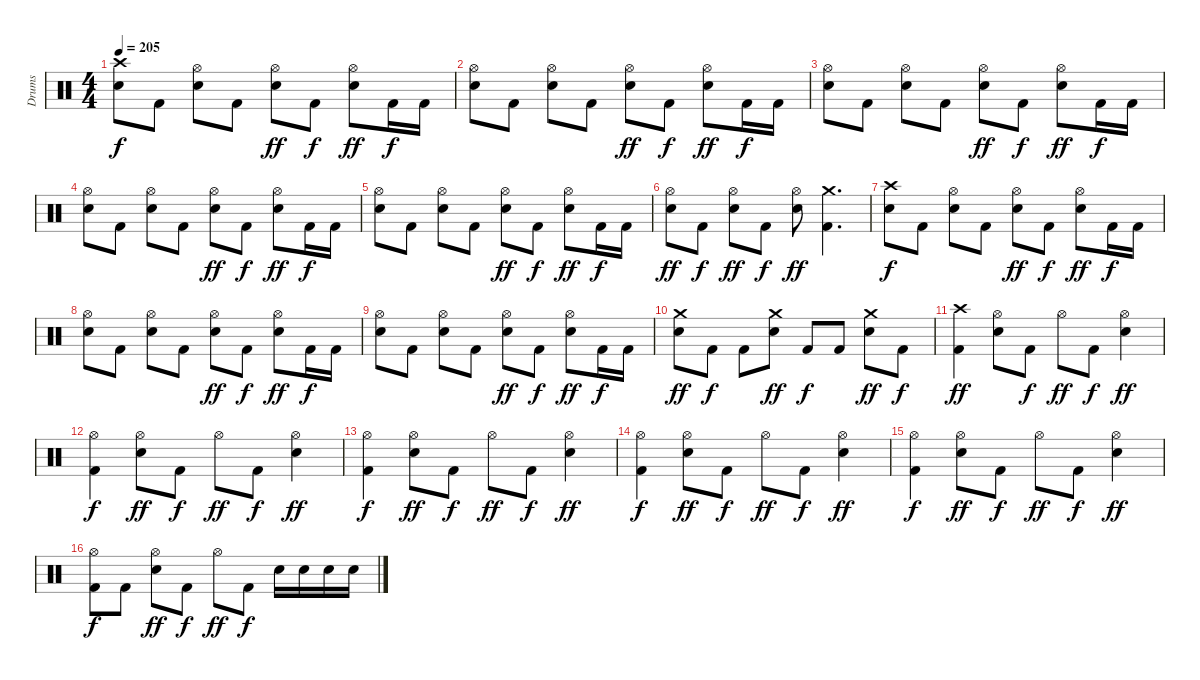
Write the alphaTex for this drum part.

\track ("Drums" "Drums") {instrument percussion}
\staff {score}
\articulation defaults
\ts (4 4)
\tempo 205
\clef neutral
\ks c
("Crash high (hit)" "Electric Snare (hit)").8{dy f} "Kick (hit) 2".8 ("Hi-Hat (open)" "Electric Snare (hit)").8 "Kick (hit) 2".8 ("Hi-Hat (open)" "Electric Snare (hit)").8{dy ff} "Kick (hit) 2".8{dy f} ("Hi-Hat (open)" "Electric Snare (hit)").8{dy ff} "Kick (hit) 2".16{dy f} "Kick (hit) 2".16 |
("Hi-Hat (open)" "Electric Snare (hit)").8 "Kick (hit) 2".8 ("Hi-Hat (open)" "Electric Snare (hit)").8 "Kick (hit) 2".8 ("Hi-Hat (open)" "Electric Snare (hit)").8{dy ff} "Kick (hit) 2".8{dy f} ("Hi-Hat (open)" "Electric Snare (hit)").8{dy ff} "Kick (hit) 2".16{dy f} "Kick (hit) 2".16 |
("Hi-Hat (open)" "Electric Snare (hit)").8 "Kick (hit) 2".8 ("Hi-Hat (open)" "Electric Snare (hit)").8 "Kick (hit) 2".8 ("Hi-Hat (open)" "Electric Snare (hit)").8{dy ff} "Kick (hit) 2".8{dy f} ("Hi-Hat (open)" "Electric Snare (hit)").8{dy ff} "Kick (hit) 2".16{dy f} "Kick (hit) 2".16 |
("Hi-Hat (open)" "Electric Snare (hit)").8 "Kick (hit) 2".8 ("Hi-Hat (open)" "Electric Snare (hit)").8 "Kick (hit) 2".8 ("Hi-Hat (open)" "Electric Snare (hit)").8{dy ff} "Kick (hit) 2".8{dy f} ("Hi-Hat (open)" "Electric Snare (hit)").8{dy ff} "Kick (hit) 2".16{dy f} "Kick (hit) 2".16 |
("Hi-Hat (open)" "Electric Snare (hit)").8 "Kick (hit) 2".8 ("Hi-Hat (open)" "Electric Snare (hit)").8 "Kick (hit) 2".8 ("Hi-Hat (open)" "Electric Snare (hit)").8{dy ff} "Kick (hit) 2".8{dy f} ("Hi-Hat (open)" "Electric Snare (hit)").8{dy ff} "Kick (hit) 2".16{dy f} "Kick (hit) 2".16 |
("Hi-Hat (open)" "Electric Snare (hit)").8{dy ff} "Kick (hit) 2".8{dy f} ("Hi-Hat (open)" "Electric Snare (hit)").8{dy ff} "Kick (hit) 2".8{dy f} ("Hi-Hat (open)" "Electric Snare (hit)").8{dy ff} ("Kick (hit) 2" "Crash medium (hit)").4{d} |
("Crash high (hit)" "Electric Snare (hit)").8{dy f} "Kick (hit) 2".8 ("Hi-Hat (open)" "Electric Snare (hit)").8 "Kick (hit) 2".8 ("Hi-Hat (open)" "Electric Snare (hit)").8{dy ff} "Kick (hit) 2".8{dy f} ("Hi-Hat (open)" "Electric Snare (hit)").8{dy ff} "Kick (hit) 2".16{dy f} "Kick (hit) 2".16 |
("Hi-Hat (open)" "Electric Snare (hit)").8 "Kick (hit) 2".8 ("Hi-Hat (open)" "Electric Snare (hit)").8 "Kick (hit) 2".8 ("Hi-Hat (open)" "Electric Snare (hit)").8{dy ff} "Kick (hit) 2".8{dy f} ("Hi-Hat (open)" "Electric Snare (hit)").8{dy ff} "Kick (hit) 2".16{dy f} "Kick (hit) 2".16 |
("Hi-Hat (open)" "Electric Snare (hit)").8 "Kick (hit) 2".8 ("Hi-Hat (open)" "Electric Snare (hit)").8 "Kick (hit) 2".8 ("Hi-Hat (open)" "Electric Snare (hit)").8{dy ff} "Kick (hit) 2".8{dy f} ("Hi-Hat (open)" "Electric Snare (hit)").8{dy ff} "Kick (hit) 2".16{dy f} "Kick (hit) 2".16 |
("Crash medium (hit)" "Electric Snare (hit)").8{dy ff} "Kick (hit) 2".8{dy f} "Kick (hit) 2".8 ("Crash medium (hit)" "Electric Snare (hit)").8{dy ff} "Kick (hit) 2".8{dy f} "Kick (hit) 2".8 ("Crash medium (hit)" "Electric Snare (hit)").8{dy ff} "Kick (hit) 2".8{dy f} |
("Crash high (hit)" "Kick (hit) 2").4{dy ff} ("Hi-Hat (open)" "Electric Snare (hit)").8 "Kick (hit) 2".8{dy f} "Hi-Hat (open)".8{dy ff} "Kick (hit) 2".8{dy f} ("Hi-Hat (open)" "Electric Snare (hit)").4{dy ff} |
("Hi-Hat (open)" "Kick (hit) 2").4{dy f} ("Hi-Hat (open)" "Electric Snare (hit)").8{dy ff} "Kick (hit) 2".8{dy f} "Hi-Hat (open)".8{dy ff} "Kick (hit) 2".8{dy f} ("Hi-Hat (open)" "Electric Snare (hit)").4{dy ff} |
("Hi-Hat (open)" "Kick (hit) 2").4{dy f} ("Hi-Hat (open)" "Electric Snare (hit)").8{dy ff} "Kick (hit) 2".8{dy f} "Hi-Hat (open)".8{dy ff} "Kick (hit) 2".8{dy f} ("Hi-Hat (open)" "Electric Snare (hit)").4{dy ff} |
("Hi-Hat (open)" "Kick (hit) 2").4{dy f} ("Hi-Hat (open)" "Electric Snare (hit)").8{dy ff} "Kick (hit) 2".8{dy f} "Hi-Hat (open)".8{dy ff} "Kick (hit) 2".8{dy f} ("Hi-Hat (open)" "Electric Snare (hit)").4{dy ff} |
("Hi-Hat (open)" "Kick (hit) 2").4{dy f} ("Hi-Hat (open)" "Electric Snare (hit)").8{dy ff} "Kick (hit) 2".8{dy f} "Hi-Hat (open)".8{dy ff} "Kick (hit) 2".8{dy f} ("Hi-Hat (open)" "Electric Snare (hit)").4{dy ff} |
("Hi-Hat (open)" "Kick (hit) 2").8{dy f} "Kick (hit) 2".8 ("Hi-Hat (open)" "Electric Snare (hit)").8{dy ff} "Kick (hit) 2".8{dy f} "Hi-Hat (open)".8{dy ff} "Kick (hit) 2".8{dy f} "Electric Snare (hit)".16 "Electric Snare (hit)".16 "Electric Snare (hit)".16 "Electric Snare (hit)".16
